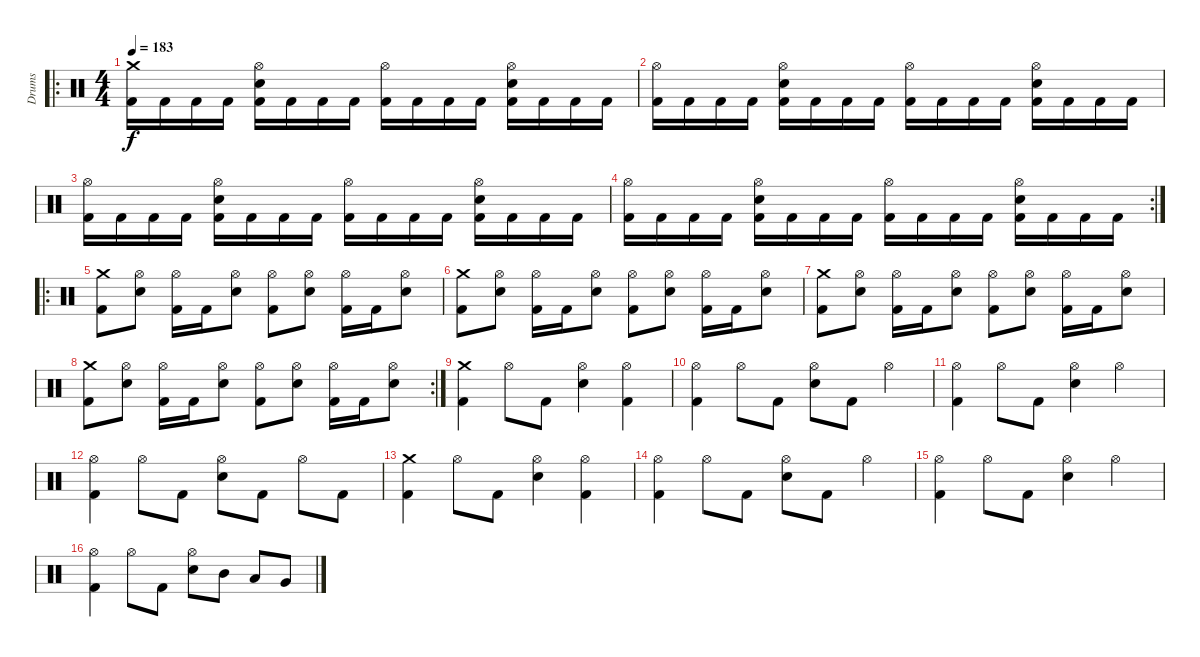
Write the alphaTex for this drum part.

\track ("Drums" "Drums") {instrument percussion}
\staff {score}
\articulation defaults
\ro
\ts (4 4)
\tempo 183
\clef neutral
\ks c
("Kick (hit) 2" "Crash medium (hit)").16{dy f} "Kick (hit) 2".16 "Kick (hit) 2".16 "Kick (hit) 2".16 ("Kick (hit) 2" "Electric Snare (hit)" "Hi-Hat (open)").16 "Kick (hit) 2".16 "Kick (hit) 2".16 "Kick (hit) 2".16 ("Kick (hit) 2" "Hi-Hat (open)").16 "Kick (hit) 2".16 "Kick (hit) 2".16 "Kick (hit) 2".16 ("Kick (hit) 2" "Electric Snare (hit)" "Hi-Hat (open)").16 "Kick (hit) 2".16 "Kick (hit) 2".16 "Kick (hit) 2".16 |
("Kick (hit) 2" "Hi-Hat (open)").16 "Kick (hit) 2".16 "Kick (hit) 2".16 "Kick (hit) 2".16 ("Kick (hit) 2" "Electric Snare (hit)" "Hi-Hat (open)").16 "Kick (hit) 2".16 "Kick (hit) 2".16 "Kick (hit) 2".16 ("Kick (hit) 2" "Hi-Hat (open)").16 "Kick (hit) 2".16 "Kick (hit) 2".16 "Kick (hit) 2".16 ("Kick (hit) 2" "Electric Snare (hit)" "Hi-Hat (open)").16 "Kick (hit) 2".16 "Kick (hit) 2".16 "Kick (hit) 2".16 |
("Kick (hit) 2" "Hi-Hat (open)").16 "Kick (hit) 2".16 "Kick (hit) 2".16 "Kick (hit) 2".16 ("Kick (hit) 2" "Electric Snare (hit)" "Hi-Hat (open)").16 "Kick (hit) 2".16 "Kick (hit) 2".16 "Kick (hit) 2".16 ("Kick (hit) 2" "Hi-Hat (open)").16 "Kick (hit) 2".16 "Kick (hit) 2".16 "Kick (hit) 2".16 ("Kick (hit) 2" "Electric Snare (hit)" "Hi-Hat (open)").16 "Kick (hit) 2".16 "Kick (hit) 2".16 "Kick (hit) 2".16 |
\rc 2
("Kick (hit) 2" "Hi-Hat (open)").16 "Kick (hit) 2".16 "Kick (hit) 2".16 "Kick (hit) 2".16 ("Kick (hit) 2" "Electric Snare (hit)" "Hi-Hat (open)").16 "Kick (hit) 2".16 "Kick (hit) 2".16 "Kick (hit) 2".16 ("Kick (hit) 2" "Hi-Hat (open)").16 "Kick (hit) 2".16 "Kick (hit) 2".16 "Kick (hit) 2".16 ("Kick (hit) 2" "Electric Snare (hit)" "Hi-Hat (open)").16 "Kick (hit) 2".16 "Kick (hit) 2".16 "Kick (hit) 2".16 |
\ro
("Kick (hit) 2" "Crash medium (hit)").8 ("Electric Snare (hit)" "Hi-Hat (open)").8 ("Kick (hit) 2" "Hi-Hat (open)").16 "Kick (hit) 2".16 ("Electric Snare (hit)" "Hi-Hat (open)").8 ("Kick (hit) 2" "Hi-Hat (open)").8 ("Electric Snare (hit)" "Hi-Hat (open)").8 ("Kick (hit) 2" "Hi-Hat (open)").16 "Kick (hit) 2".16 ("Electric Snare (hit)" "Hi-Hat (open)").8 |
("Kick (hit) 2" "Crash medium (hit)").8 ("Electric Snare (hit)" "Hi-Hat (open)").8 ("Kick (hit) 2" "Hi-Hat (open)").16 "Kick (hit) 2".16 ("Electric Snare (hit)" "Hi-Hat (open)").8 ("Kick (hit) 2" "Hi-Hat (open)").8 ("Electric Snare (hit)" "Hi-Hat (open)").8 ("Kick (hit) 2" "Hi-Hat (open)").16 "Kick (hit) 2".16 ("Electric Snare (hit)" "Hi-Hat (open)").8 |
("Kick (hit) 2" "Crash medium (hit)").8 ("Electric Snare (hit)" "Hi-Hat (open)").8 ("Kick (hit) 2" "Hi-Hat (open)").16 "Kick (hit) 2".16 ("Electric Snare (hit)" "Hi-Hat (open)").8 ("Kick (hit) 2" "Hi-Hat (open)").8 ("Electric Snare (hit)" "Hi-Hat (open)").8 ("Kick (hit) 2" "Hi-Hat (open)").16 "Kick (hit) 2".16 ("Electric Snare (hit)" "Hi-Hat (open)").8 |
\rc 2
("Kick (hit) 2" "Crash medium (hit)").8 ("Electric Snare (hit)" "Hi-Hat (open)").8 ("Kick (hit) 2" "Hi-Hat (open)").16 "Kick (hit) 2".16 ("Electric Snare (hit)" "Hi-Hat (open)").8 ("Kick (hit) 2" "Hi-Hat (open)").8 ("Electric Snare (hit)" "Hi-Hat (open)").8 ("Kick (hit) 2" "Hi-Hat (open)").16 "Kick (hit) 2".16 ("Electric Snare (hit)" "Hi-Hat (open)").8 |
("Kick (hit) 2" "Crash medium (hit)").4 "Hi-Hat (open)".8 "Kick (hit) 2".8 ("Electric Snare (hit)" "Hi-Hat (open)").4 ("Kick (hit) 2" "Hi-Hat (open)").4 |
("Kick (hit) 2" "Hi-Hat (open)").4 "Hi-Hat (open)".8 "Kick (hit) 2".8 ("Electric Snare (hit)" "Hi-Hat (open)").8 "Kick (hit) 2".8 "Hi-Hat (open)".4 |
("Kick (hit) 2" "Hi-Hat (open)").4 "Hi-Hat (open)".8 "Kick (hit) 2".8 ("Electric Snare (hit)" "Hi-Hat (open)").4 "Hi-Hat (open)".4 |
("Kick (hit) 2" "Hi-Hat (open)").4 "Hi-Hat (open)".8 "Kick (hit) 2".8 ("Electric Snare (hit)" "Hi-Hat (open)").8 "Kick (hit) 2".8 "Hi-Hat (open)".8 "Kick (hit) 2".8 |
("Kick (hit) 2" "Crash medium (hit)").4 "Hi-Hat (open)".8 "Kick (hit) 2".8 ("Electric Snare (hit)" "Hi-Hat (open)").4 ("Kick (hit) 2" "Hi-Hat (open)").4 |
("Kick (hit) 2" "Hi-Hat (open)").4 "Hi-Hat (open)".8 "Kick (hit) 2".8 ("Electric Snare (hit)" "Hi-Hat (open)").8 "Kick (hit) 2".8 "Hi-Hat (open)".4 |
("Kick (hit) 2" "Hi-Hat (open)").4 "Hi-Hat (open)".8 "Kick (hit) 2".8 ("Electric Snare (hit)" "Hi-Hat (open)").4 "Hi-Hat (open)".4 |
("Kick (hit) 2" "Hi-Hat (open)").4 "Hi-Hat (open)".8 "Kick (hit) 2".8 ("Electric Snare (hit)" "Hi-Hat (open)").8 "Mid Tom (hit)".8 "Low Tom (hit)".8 "Very Low Tom (hit)".8
